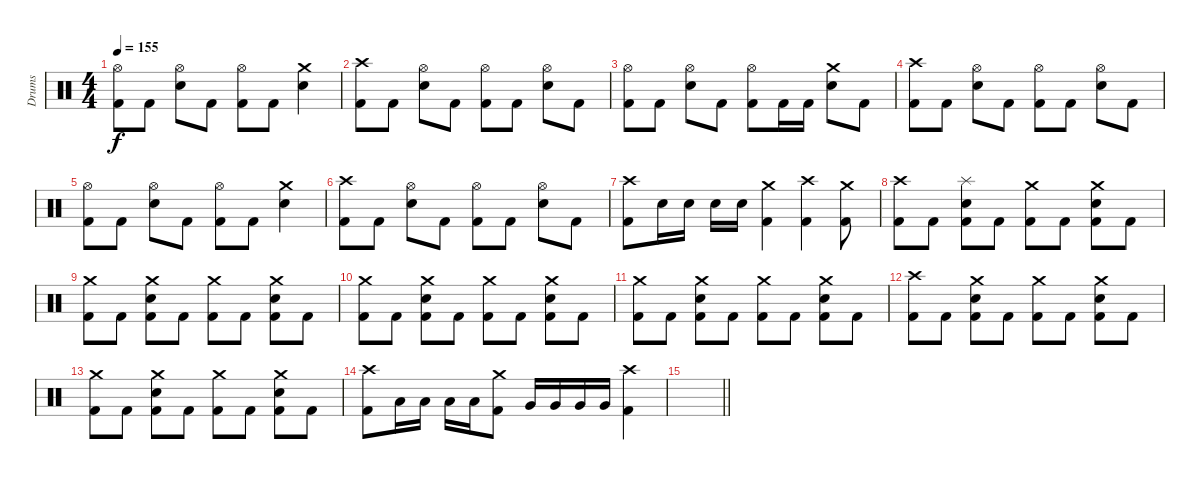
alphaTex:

\track ("Drums" "Drums") {instrument percussion}
\staff {score}
\articulation defaults
\ts (4 4)
\tempo 155
\clef neutral
\ks c
("Hi-Hat (open)" "Kick (hit) 2").8{dy f} "Kick (hit) 2".8 ("Hi-Hat (open)" "Electric Snare (hit)").8 "Kick (hit) 2".8 ("Hi-Hat (open)" "Kick (hit) 2").8 "Kick (hit) 2".8 ("Crash medium (hit)" "Electric Snare (hit)").4 |
("Crash high (hit)" "Kick (hit) 2").8 "Kick (hit) 2".8 ("Hi-Hat (open)" "Electric Snare (hit)").8 "Kick (hit) 2".8 ("Hi-Hat (open)" "Kick (hit) 2").8 "Kick (hit) 2".8 ("Hi-Hat (open)" "Electric Snare (hit)").8 "Kick (hit) 2".8 |
("Hi-Hat (open)" "Kick (hit) 2").8 "Kick (hit) 2".8 ("Hi-Hat (open)" "Electric Snare (hit)").8 "Kick (hit) 2".8 ("Hi-Hat (open)" "Kick (hit) 2").8 "Kick (hit) 2".16 "Kick (hit) 2".16 ("Crash medium (hit)" "Electric Snare (hit)").8 "Kick (hit) 2".8 |
("Crash high (hit)" "Kick (hit) 2").8 "Kick (hit) 2".8 ("Hi-Hat (open)" "Electric Snare (hit)").8 "Kick (hit) 2".8 ("Hi-Hat (open)" "Kick (hit) 2").8 "Kick (hit) 2".8 ("Hi-Hat (open)" "Electric Snare (hit)").8 "Kick (hit) 2".8 |
("Hi-Hat (open)" "Kick (hit) 2").8 "Kick (hit) 2".8 ("Hi-Hat (open)" "Electric Snare (hit)").8 "Kick (hit) 2".8 ("Hi-Hat (open)" "Kick (hit) 2").8 "Kick (hit) 2".8 ("Crash medium (hit)" "Electric Snare (hit)").4 |
("Crash high (hit)" "Kick (hit) 2").8 "Kick (hit) 2".8 ("Hi-Hat (open)" "Electric Snare (hit)").8 "Kick (hit) 2".8 ("Hi-Hat (open)" "Kick (hit) 2").8 "Kick (hit) 2".8 ("Hi-Hat (open)" "Electric Snare (hit)").8 "Kick (hit) 2".8 |
("Crash high (hit)" "Kick (hit) 2").8 "Electric Snare (hit)".16 "Electric Snare (hit)".16 "Electric Snare (hit)".16 "Electric Snare (hit)".16 ("Crash medium (hit)" "Kick (hit) 2").4 ("Crash high (hit)" "Kick (hit) 2").4 ("Crash medium (hit)" "Kick (hit) 2").8 |
("Crash high (hit)" "Kick (hit) 2").8 "Kick (hit) 2".8 ("Splash (hit)" "Electric Snare (hit)" "Kick (hit) 2").8 "Kick (hit) 2".8 ("Crash medium (hit)" "Kick (hit) 2").8 "Kick (hit) 2".8 ("Crash medium (hit)" "Electric Snare (hit)" "Kick (hit) 2").8 "Kick (hit) 2".8 |
("Crash medium (hit)" "Kick (hit) 2").8 "Kick (hit) 2".8 ("Crash medium (hit)" "Electric Snare (hit)" "Kick (hit) 2").8 "Kick (hit) 2".8 ("Crash medium (hit)" "Kick (hit) 2").8 "Kick (hit) 2".8 ("Crash medium (hit)" "Electric Snare (hit)" "Kick (hit) 2").8 "Kick (hit) 2".8 |
("Crash medium (hit)" "Kick (hit) 2").8 "Kick (hit) 2".8 ("Crash medium (hit)" "Electric Snare (hit)" "Kick (hit) 2").8 "Kick (hit) 2".8 ("Crash medium (hit)" "Kick (hit) 2").8 "Kick (hit) 2".8 ("Crash medium (hit)" "Electric Snare (hit)" "Kick (hit) 2").8 "Kick (hit) 2".8 |
("Crash medium (hit)" "Kick (hit) 2").8 "Kick (hit) 2".8 ("Crash medium (hit)" "Electric Snare (hit)" "Kick (hit) 2").8 "Kick (hit) 2".8 ("Crash medium (hit)" "Kick (hit) 2").8 "Kick (hit) 2".8 ("Crash medium (hit)" "Electric Snare (hit)" "Kick (hit) 2").8 "Kick (hit) 2".8 |
("Crash high (hit)" "Kick (hit) 2").8 "Kick (hit) 2".8 ("Crash medium (hit)" "Electric Snare (hit)" "Kick (hit) 2").8 "Kick (hit) 2".8 ("Crash medium (hit)" "Kick (hit) 2").8 "Kick (hit) 2".8 ("Crash medium (hit)" "Electric Snare (hit)" "Kick (hit) 2").8 "Kick (hit) 2".8 |
("Crash medium (hit)" "Kick (hit) 2").8 "Kick (hit) 2".8 ("Crash medium (hit)" "Electric Snare (hit)" "Kick (hit) 2").8 "Kick (hit) 2".8 ("Crash medium (hit)" "Kick (hit) 2").8 "Kick (hit) 2".8 ("Crash medium (hit)" "Electric Snare (hit)" "Kick (hit) 2").8 "Kick (hit) 2".8 |
("Crash high (hit)" "Kick (hit) 2").8 "Low Tom (hit)".16 "Low Tom (hit)".16 "Low Tom (hit)".16 "Low Tom (hit)".16 ("Crash medium (hit)" "Kick (hit) 2").8 "Very Low Tom (hit)".16 "Very Low Tom (hit)".16 "Very Low Tom (hit)".16 "Very Low Tom (hit)".16 ("Crash high (hit)" "Kick (hit) 2").4 |
\barLineRight lightlight
